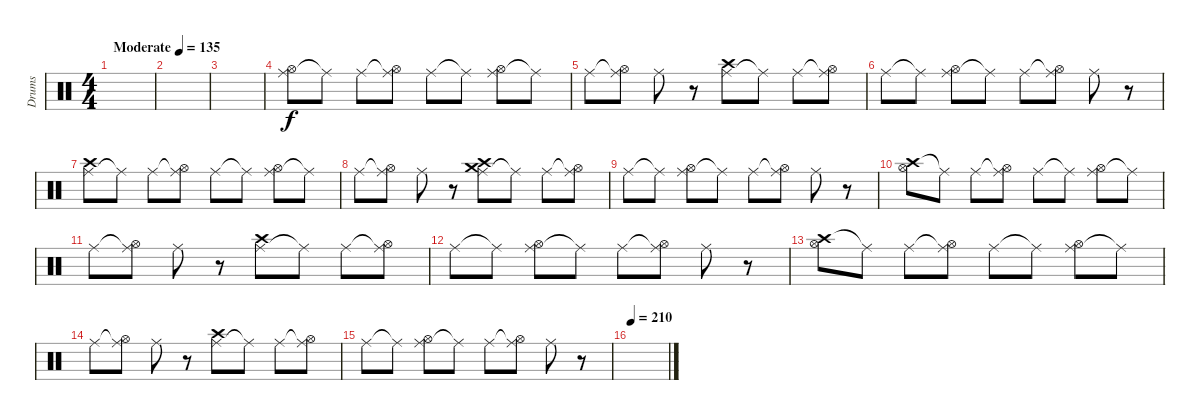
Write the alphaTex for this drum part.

\track ("Drums" "Drums") {instrument percussion}
\staff {score}
\articulation defaults
\ts (4 4)
\tempo (135 "Moderate")
\clef neutral
\ks c
|
|
|
("Ride (middle)" "Hi-Hat (open)").8 "Ride (middle)"{t}.8 "Ride (middle)".8 ("Ride (middle)"{t} "Hi-Hat (open)").8 "Ride (middle)".8 "Ride (middle)"{t}.8 ("Ride (middle)" "Hi-Hat (open)").8 "Ride (middle)"{t}.8 |
"Ride (middle)".8 ("Ride (middle)"{t} "Hi-Hat (open)").8 "Ride (middle)".8 r.8 ("Ride (middle)" "Crash high (hit)").8 "Ride (middle)"{t}.8 "Ride (middle)".8 ("Ride (middle)"{t} "Hi-Hat (open)").8 |
"Ride (middle)".8 "Ride (middle)"{t}.8 ("Ride (middle)" "Hi-Hat (open)").8 "Ride (middle)"{t}.8 "Ride (middle)".8 ("Ride (middle)"{t} "Hi-Hat (open)").8 "Ride (middle)".8 r.8 |
("Ride (middle)" "Crash high (hit)").8 "Ride (middle)"{t}.8 "Ride (middle)".8 ("Ride (middle)"{t} "Hi-Hat (open)").8 "Ride (middle)".8 "Ride (middle)"{t}.8 ("Ride (middle)" "Hi-Hat (open)").8 "Ride (middle)"{t}.8 |
"Ride (middle)".8 ("Ride (middle)"{t} "Hi-Hat (open)").8 "Ride (middle)".8 r.8 ("Ride (middle)" "Crash medium (hit)" "Crash high (hit)").8 "Ride (middle)"{t}.8 "Ride (middle)".8 ("Ride (middle)"{t} "Hi-Hat (open)").8 |
"Ride (middle)".8 "Ride (middle)"{t}.8 ("Ride (middle)" "Hi-Hat (open)").8 "Ride (middle)"{t}.8 "Ride (middle)".8 ("Ride (middle)"{t} "Hi-Hat (open)").8 "Ride (middle)".8 r.8 |
("Crash high (hit)" "Hi-Hat (open)").8 "Ride (middle)"{t}.8 "Ride (middle)".8 ("Ride (middle)"{t} "Hi-Hat (open)").8 "Ride (middle)".8 "Ride (middle)"{t}.8 ("Ride (middle)" "Hi-Hat (open)").8 "Ride (middle)"{t}.8 |
"Ride (middle)".8 ("Ride (middle)"{t} "Hi-Hat (open)").8 "Ride (middle)".8 r.8 ("Ride (middle)" "Crash high (hit)").8 "Ride (middle)"{t}.8 "Ride (middle)".8 ("Ride (middle)"{t} "Hi-Hat (open)").8 |
"Ride (middle)".8 "Ride (middle)"{t}.8 ("Ride (middle)" "Hi-Hat (open)").8 "Ride (middle)"{t}.8 "Ride (middle)".8 ("Ride (middle)"{t} "Hi-Hat (open)").8 "Ride (middle)".8 r.8 |
("Crash high (hit)" "Hi-Hat (open)").8 "Ride (middle)"{t}.8 "Ride (middle)".8 ("Ride (middle)"{t} "Hi-Hat (open)").8 "Ride (middle)".8 "Ride (middle)"{t}.8 ("Ride (middle)" "Hi-Hat (open)").8 "Ride (middle)"{t}.8 |
"Ride (middle)".8 ("Ride (middle)"{t} "Hi-Hat (open)").8 "Ride (middle)".8 r.8 ("Ride (middle)" "Crash high (hit)").8 "Ride (middle)"{t}.8 "Ride (middle)".8 ("Ride (middle)"{t} "Hi-Hat (open)").8 |
"Ride (middle)".8 "Ride (middle)"{t}.8 ("Ride (middle)" "Hi-Hat (open)").8 "Ride (middle)"{t}.8 "Ride (middle)".8 ("Ride (middle)"{t} "Hi-Hat (open)").8 "Ride (middle)".8 r.8 |
\tempo 210
